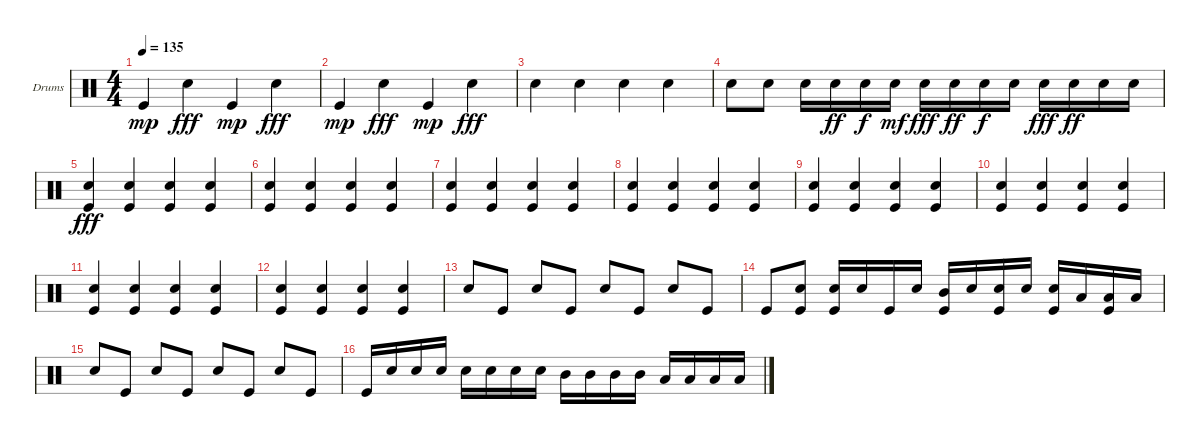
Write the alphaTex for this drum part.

\defaultSystemsLayout 4
\bracketExtendMode groupsimilarinstruments
\firstSystemTrackNameOrientation horizontal
\otherSystemsTrackNameOrientation horizontal
\track ("Helders" "Drums") {instrument percussion}
\staff {score}
\articulation defaults
\ts (4 4)
\tempo 135
\clef neutral
\ks c "Kick (hit)".4{dy mp} "Snare (hit) 2".4{dy fff} "Kick (hit)".4{dy mp} "Snare (hit) 2".4{dy fff}
|
"Kick (hit)".4{dy mp} "Snare (hit) 2".4{dy fff} "Kick (hit)".4{dy mp} "Snare (hit) 2".4{dy fff} |
"Snare (hit) 2".4 "Snare (hit) 2".4 "Snare (hit) 2".4 "Snare (hit) 2".4 |
"Snare (hit) 2".8 "Snare (hit) 2".8 "Snare (hit) 2".16 "Snare (hit) 2".16{dy ff} "Snare (hit) 2".16{dy f} "Snare (hit) 2".16{dy mf} "Snare (hit) 2".16{dy fff} "Snare (hit) 2".16{dy ff} "Snare (hit) 2".16{dy f} "Snare (hit) 2".16 "Snare (hit) 2".16{dy fff} "Snare (hit) 2".16{dy ff} "Snare (hit) 2".16 "Snare (hit) 2".16 |
("Snare (hit) 2" "Kick (hit)").4{dy fff} ("Snare (hit) 2" "Kick (hit)").4 ("Snare (hit) 2" "Kick (hit)").4 ("Snare (hit) 2" "Kick (hit)").4 |
("Snare (hit) 2" "Kick (hit)").4 ("Snare (hit) 2" "Kick (hit)").4 ("Snare (hit) 2" "Kick (hit)").4 ("Snare (hit) 2" "Kick (hit)").4 |
("Snare (hit) 2" "Kick (hit)").4 ("Snare (hit) 2" "Kick (hit)").4 ("Snare (hit) 2" "Kick (hit)").4 ("Snare (hit) 2" "Kick (hit)").4 |
("Snare (hit) 2" "Kick (hit)").4 ("Snare (hit) 2" "Kick (hit)").4 ("Snare (hit) 2" "Kick (hit)").4 ("Snare (hit) 2" "Kick (hit)").4 |
("Snare (hit) 2" "Kick (hit)").4 ("Snare (hit) 2" "Kick (hit)").4 ("Snare (hit) 2" "Kick (hit)").4 ("Snare (hit) 2" "Kick (hit)").4 |
("Snare (hit) 2" "Kick (hit)").4 ("Snare (hit) 2" "Kick (hit)").4 ("Snare (hit) 2" "Kick (hit)").4 ("Snare (hit) 2" "Kick (hit)").4 |
("Snare (hit) 2" "Kick (hit)").4 ("Snare (hit) 2" "Kick (hit)").4 ("Snare (hit) 2" "Kick (hit)").4 ("Snare (hit) 2" "Kick (hit)").4 |
("Snare (hit) 2" "Kick (hit)").4 ("Snare (hit) 2" "Kick (hit)").4 ("Snare (hit) 2" "Kick (hit)").4 ("Snare (hit) 2" "Kick (hit)").4 |
"Snare (hit) 2".8 "Kick (hit)".8 "Snare (hit) 2".8 "Kick (hit)".8 "Snare (hit) 2".8 "Kick (hit)".8 "Snare (hit) 2".8 "Kick (hit)".8 |
"Kick (hit)".8 ("Snare (hit) 2" "Kick (hit)").8 ("Snare (hit) 2" "Kick (hit)").16 "Snare (hit) 2".16 "Kick (hit)".16 "Snare (hit) 2".16 ("Mid Tom (hit)" "Kick (hit)").16 "Snare (hit) 2".16 ("Snare (hit) 2" "Kick (hit)").16 "Snare (hit) 2".16 ("Snare (hit) 2" "Kick (hit)").16 "Low Tom (hit)".16 ("Low Tom (hit)" "Kick (hit)").16 "Low Tom (hit)".16 |
"Snare (hit) 2".8 "Kick (hit)".8 "Snare (hit) 2".8 "Kick (hit)".8 "Snare (hit) 2".8 "Kick (hit)".8 "Snare (hit) 2".8 "Kick (hit)".8 |
"Kick (hit)".16 "Snare (hit) 2".16 "Snare (hit) 2".16 "Snare (hit) 2".16 "Snare (hit) 2".16 "Snare (hit) 2".16 "Snare (hit) 2".16 "Snare (hit) 2".16 "Mid Tom (hit)".16 "Mid Tom (hit)".16 "Mid Tom (hit)".16 "Mid Tom (hit)".16 "Low Tom (hit)".16 "Low Tom (hit)".16 "Low Tom (hit)".16 "Low Tom (hit)".16
